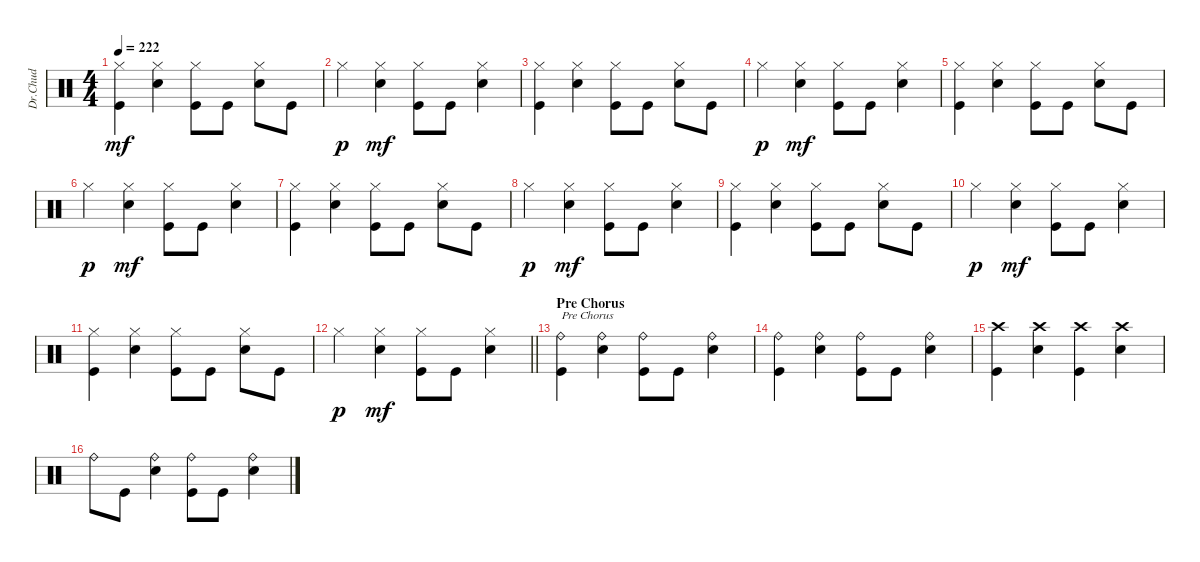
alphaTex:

\track ("Dr.Chud" "Dr.Chud") {instrument percussion}
\staff {score}
\articulation defaults
\ts (4 4)
\tempo 222
\clef neutral
\ks c
("Hi-Hat (closed)" "Kick (hit)").4{dy mf} ("Hi-Hat (closed)" "Electric Snare (hit)").4 ("Hi-Hat (closed)" "Kick (hit)").8 "Kick (hit)".8 ("Hi-Hat (closed)" "Electric Snare (hit)").8 "Kick (hit)".8 |
"Hi-Hat (closed)".4{dy p} ("Hi-Hat (closed)" "Electric Snare (hit)").4{dy mf} ("Hi-Hat (closed)" "Kick (hit)").8 "Kick (hit)".8 ("Hi-Hat (closed)" "Electric Snare (hit)").4 |
("Hi-Hat (closed)" "Kick (hit)").4 ("Hi-Hat (closed)" "Electric Snare (hit)").4 ("Hi-Hat (closed)" "Kick (hit)").8 "Kick (hit)".8 ("Hi-Hat (closed)" "Electric Snare (hit)").8 "Kick (hit)".8 |
"Hi-Hat (closed)".4{dy p} ("Hi-Hat (closed)" "Electric Snare (hit)").4{dy mf} ("Hi-Hat (closed)" "Kick (hit)").8 "Kick (hit)".8 ("Hi-Hat (closed)" "Electric Snare (hit)").4 |
("Hi-Hat (closed)" "Kick (hit)").4 ("Hi-Hat (closed)" "Electric Snare (hit)").4 ("Hi-Hat (closed)" "Kick (hit)").8 "Kick (hit)".8 ("Hi-Hat (closed)" "Electric Snare (hit)").8 "Kick (hit)".8 |
"Hi-Hat (closed)".4{dy p} ("Hi-Hat (closed)" "Electric Snare (hit)").4{dy mf} ("Hi-Hat (closed)" "Kick (hit)").8 "Kick (hit)".8 ("Hi-Hat (closed)" "Electric Snare (hit)").4 |
("Hi-Hat (closed)" "Kick (hit)").4 ("Hi-Hat (closed)" "Electric Snare (hit)").4 ("Hi-Hat (closed)" "Kick (hit)").8 "Kick (hit)".8 ("Hi-Hat (closed)" "Electric Snare (hit)").8 "Kick (hit)".8 |
"Hi-Hat (closed)".4{dy p} ("Hi-Hat (closed)" "Electric Snare (hit)").4{dy mf} ("Hi-Hat (closed)" "Kick (hit)").8 "Kick (hit)".8 ("Hi-Hat (closed)" "Electric Snare (hit)").4 |
("Hi-Hat (closed)" "Kick (hit)").4 ("Hi-Hat (closed)" "Electric Snare (hit)").4 ("Hi-Hat (closed)" "Kick (hit)").8 "Kick (hit)".8 ("Hi-Hat (closed)" "Electric Snare (hit)").8 "Kick (hit)".8 |
"Hi-Hat (closed)".4{dy p} ("Hi-Hat (closed)" "Electric Snare (hit)").4{dy mf} ("Hi-Hat (closed)" "Kick (hit)").8 "Kick (hit)".8 ("Hi-Hat (closed)" "Electric Snare (hit)").4 |
("Hi-Hat (closed)" "Kick (hit)").4 ("Hi-Hat (closed)" "Electric Snare (hit)").4 ("Hi-Hat (closed)" "Kick (hit)").8 "Kick (hit)".8 ("Hi-Hat (closed)" "Electric Snare (hit)").8 "Kick (hit)".8 |
\barLineRight lightlight "Hi-Hat (closed)".4{dy p}
("Hi-Hat (closed)" "Electric Snare (hit)").4{dy mf} ("Hi-Hat (closed)" "Kick (hit)").8 "Kick (hit)".8 ("Hi-Hat (closed)" "Electric Snare (hit)").4 |
\section ("" "Pre Chorus")
("Ride (bell)" "Kick (hit)").4{txt "Pre Chorus"} ("Ride (bell)" "Electric Snare (hit)").4 ("Ride (bell)" "Kick (hit)").8 "Kick (hit)".8 ("Ride (bell)" "Electric Snare (hit)").4 |
("Ride (bell)" "Kick (hit)").4 ("Ride (bell)" "Electric Snare (hit)").4 ("Ride (bell)" "Kick (hit)").8 "Kick (hit)".8 ("Ride (bell)" "Electric Snare (hit)").4 |
("Crash high (hit)" "Kick (hit)").4 ("Crash high (hit)" "Electric Snare (hit)").4 ("Crash high (hit)" "Kick (hit)").4 ("Crash high (hit)" "Electric Snare (hit)").4 |
"Ride (bell)".8 "Kick (hit)".8 ("Ride (bell)" "Electric Snare (hit)").4 ("Ride (bell)" "Kick (hit)").8 "Kick (hit)".8 ("Ride (bell)" "Electric Snare (hit)").4
